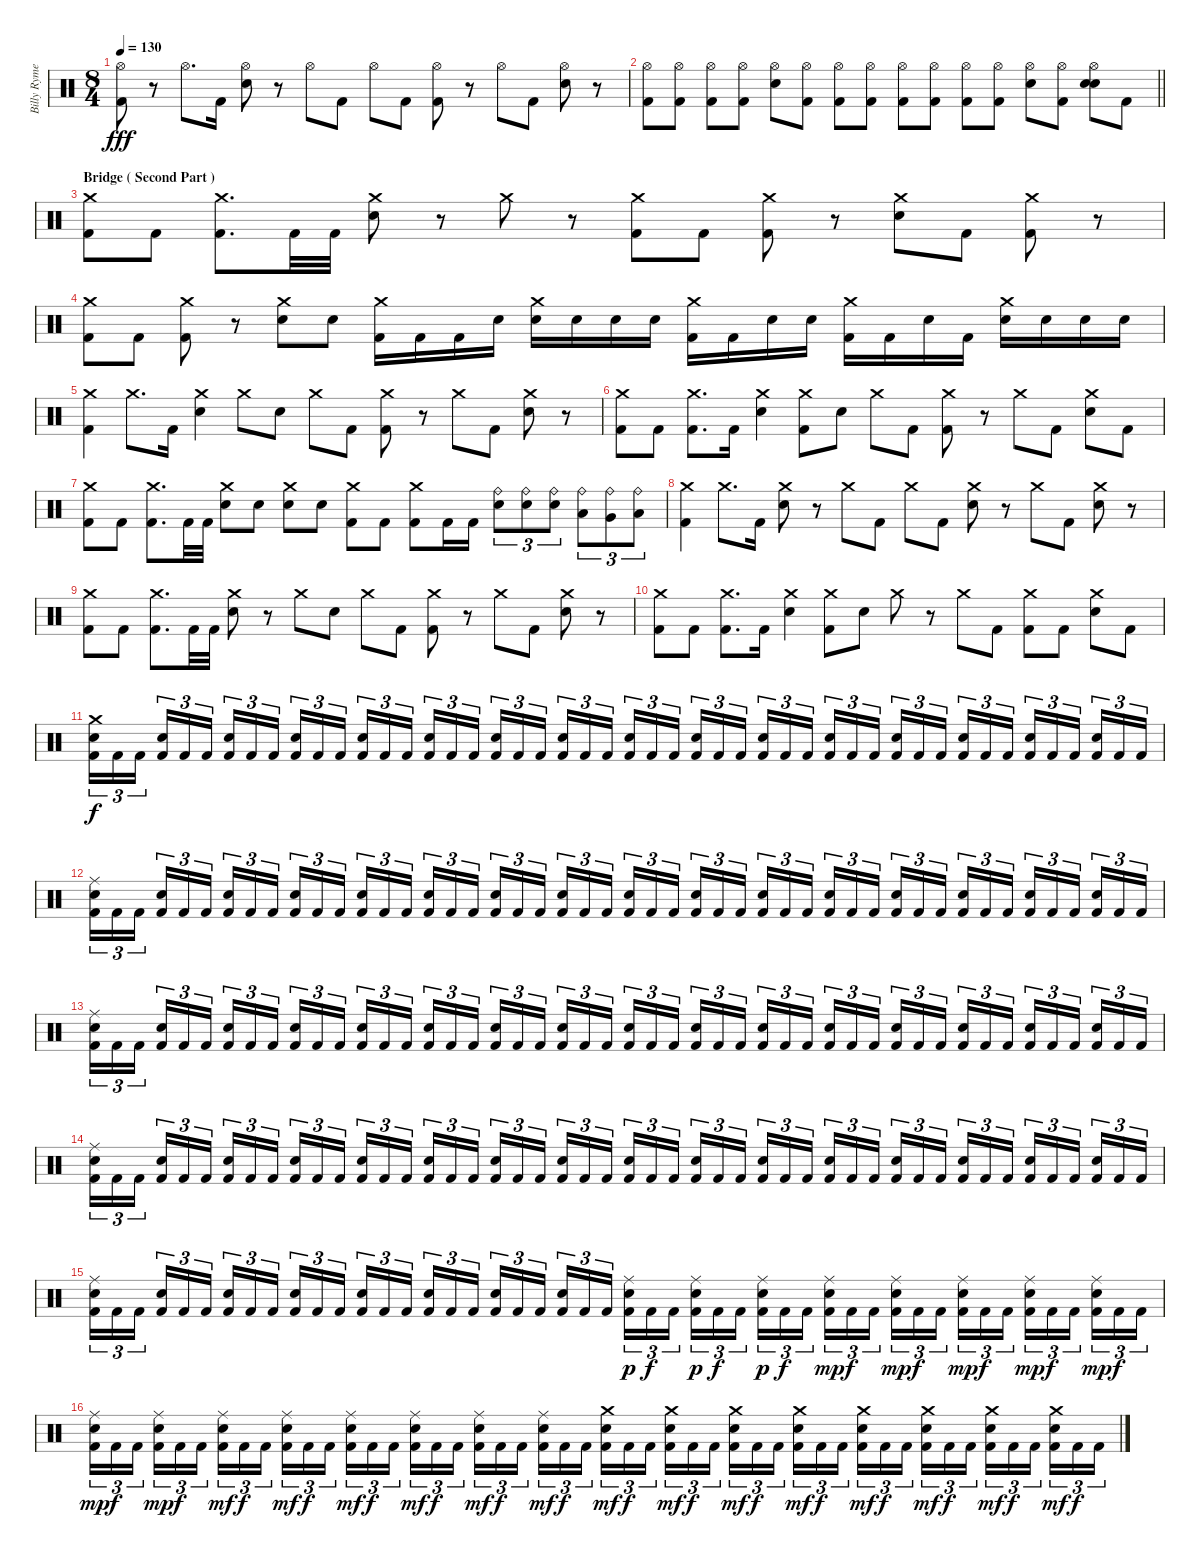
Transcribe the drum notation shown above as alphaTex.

\track ("Billy Rymer" "Billy Ryme") {instrument percussion}
\staff {score}
\articulation defaults
\ts (8 4)
\tempo 130
\clef neutral
\ks c
("Hi-Hat (open)" "Kick (hit) 2").8{dy fff} r.8 "Hi-Hat (open)".8{d} "Kick (hit) 2".16 ("Hi-Hat (open)" "Electric Snare (hit)").8 r.8 "Hi-Hat (open)".8 "Kick (hit) 2".8 "Hi-Hat (open)".8 "Kick (hit) 2".8 ("Hi-Hat (open)" "Kick (hit) 2").8 r.8 "Hi-Hat (open)".8 "Kick (hit) 2".8 ("Hi-Hat (open)" "Electric Snare (hit)").8 r.8 |
\barLineRight lightlight
("Hi-Hat (open)" "Kick (hit) 2").8 ("Hi-Hat (open)" "Kick (hit) 2").8 ("Hi-Hat (open)" "Kick (hit) 2").8 ("Hi-Hat (open)" "Kick (hit) 2").8 ("Hi-Hat (open)" "Electric Snare (hit)").8 ("Hi-Hat (open)" "Kick (hit) 2").8 ("Hi-Hat (open)" "Kick (hit) 2").8 ("Hi-Hat (open)" "Kick (hit) 2").8 ("Hi-Hat (open)" "Kick (hit) 2").8 ("Hi-Hat (open)" "Kick (hit) 2").8 ("Hi-Hat (open)" "Kick (hit) 2").8 ("Hi-Hat (open)" "Kick (hit) 2").8 ("Hi-Hat (open)" "Electric Snare (hit)").8 ("Hi-Hat (open)" "Kick (hit) 2").8 ("Hi-Hat (open)" "Electric Snare (hit)" "Electric Snare (hit)").8 "Kick (hit) 2".8 |
\section ("" "Bridge ( Second Part )")
("Crash medium (hit)" "Kick (hit) 2").8 "Kick (hit) 2".8 ("Crash medium (hit)" "Kick (hit) 2").8{d} "Kick (hit) 2".32 "Kick (hit) 2".32 ("Crash medium (hit)" "Electric Snare (hit)").8 r.8 "Crash medium (hit)".8 r.8 ("Crash medium (hit)" "Kick (hit) 2").8 "Kick (hit) 2".8 ("Crash medium (hit)" "Kick (hit) 2").8 r.8 ("Crash medium (hit)" "Electric Snare (hit)").8 "Kick (hit) 2".8 ("Crash medium (hit)" "Kick (hit) 2").8 r.8 |
("Crash medium (hit)" "Kick (hit) 2").8 "Kick (hit) 2".8 ("Crash medium (hit)" "Kick (hit) 2").8 r.8 ("Crash medium (hit)" "Electric Snare (hit)").8 "Electric Snare (hit)".8 ("Crash medium (hit)" "Kick (hit) 2").16 "Kick (hit) 2".16 "Kick (hit) 2".16 "Electric Snare (hit)".16 ("Crash medium (hit)" "Electric Snare (hit)").16 "Electric Snare (hit)".16 "Electric Snare (hit)".16 "Electric Snare (hit)".16 ("Crash medium (hit)" "Kick (hit) 2").16 "Kick (hit) 2".16 "Electric Snare (hit)".16 "Electric Snare (hit)".16 ("Crash medium (hit)" "Kick (hit) 2").16 "Kick (hit) 2".16 "Electric Snare (hit)".16 "Kick (hit) 2".16 ("Crash medium (hit)" "Electric Snare (hit)").16 "Electric Snare (hit)".16 "Electric Snare (hit)".16 "Electric Snare (hit)".16 |
("Crash medium (hit)" "Kick (hit) 2").4 "Crash medium (hit)".8{d} "Kick (hit) 2".16 ("Crash medium (hit)" "Electric Snare (hit)").4 "Crash medium (hit)".8 "Electric Snare (hit)".8 "Crash medium (hit)".8 "Kick (hit) 2".8 ("Crash medium (hit)" "Kick (hit) 2").8 r.8 "Crash medium (hit)".8 "Kick (hit) 2".8 ("Crash medium (hit)" "Electric Snare (hit)").8 r.8 |
("Crash medium (hit)" "Kick (hit) 2").8 "Kick (hit) 2".8 ("Crash medium (hit)" "Kick (hit) 2").8{d} "Kick (hit) 2".16 ("Crash medium (hit)" "Electric Snare (hit)").4 ("Crash medium (hit)" "Kick (hit) 2").8 "Electric Snare (hit)".8 "Crash medium (hit)".8 "Kick (hit) 2".8 ("Crash medium (hit)" "Kick (hit) 2").8 r.8 "Crash medium (hit)".8 "Kick (hit) 2".8 ("Crash medium (hit)" "Electric Snare (hit)").8 "Kick (hit) 2".8 |
("Crash medium (hit)" "Kick (hit) 2").8 "Kick (hit) 2".8 ("Crash medium (hit)" "Kick (hit) 2").8{d} "Kick (hit) 2".32 "Kick (hit) 2".32 ("Crash medium (hit)" "Electric Snare (hit)").8 "Electric Snare (hit)".8 ("Crash medium (hit)" "Electric Snare (hit)").8 "Electric Snare (hit)".8 ("Crash medium (hit)" "Kick (hit) 2").8 "Kick (hit) 2".8 ("Crash medium (hit)" "Kick (hit) 2").8 "Kick (hit) 2".16 "Kick (hit) 2".16 ("Ride (bell)" "Electric Snare (hit)").8{tu (3 2)} ("Ride (bell)" "Electric Snare (hit)").8{tu (3 2)} ("Ride (bell)" "Electric Snare (hit)").8{tu (3 2)} ("Ride (bell)" "Low Tom (hit)").8{tu (3 2)} ("Ride (bell)" "Very Low Tom (hit)").8{tu (3 2)} ("Ride (bell)" "Low Floor Tom (hit)").8{tu (3 2)} |
("Crash medium (hit)" "Kick (hit) 2").4 "Crash medium (hit)".8{d} "Kick (hit) 2".16 ("Crash medium (hit)" "Electric Snare (hit)").8 r.8 "Crash medium (hit)".8 "Kick (hit) 2".8 "Crash medium (hit)".8 "Kick (hit) 2".8 ("Crash medium (hit)" "Electric Snare (hit)").8 r.8 "Crash medium (hit)".8 "Kick (hit) 2".8 ("Crash medium (hit)" "Electric Snare (hit)").8 r.8 |
("Crash medium (hit)" "Kick (hit) 2").8 "Kick (hit) 2".8 ("Crash medium (hit)" "Kick (hit) 2").8{d} "Kick (hit) 2".32 "Kick (hit) 2".32 ("Crash medium (hit)" "Electric Snare (hit)").8 r.8 "Crash medium (hit)".8 "Electric Snare (hit)".8 "Crash medium (hit)".8 "Kick (hit) 2".8 ("Crash medium (hit)" "Kick (hit) 2").8 r.8 "Crash medium (hit)".8 "Kick (hit) 2".8 ("Crash medium (hit)" "Electric Snare (hit)").8 r.8 |
("Crash medium (hit)" "Kick (hit) 2").8 "Kick (hit) 2".8 ("Crash medium (hit)" "Kick (hit) 2").8{d} "Kick (hit) 2".16 ("Crash medium (hit)" "Electric Snare (hit)").4 ("Crash medium (hit)" "Kick (hit) 2").8 "Electric Snare (hit)".8 "Crash medium (hit)".8 r.8 "Crash medium (hit)".8 "Kick (hit) 2".8 ("Crash medium (hit)" "Kick (hit) 2").8 "Kick (hit) 2".8 ("Crash medium (hit)" "Electric Snare (hit)").8 "Kick (hit) 2".8 |
("Crash medium (hit)" "Electric Snare (hit)" "Kick (hit) 2").16{tu (3 2) dy f} "Kick (hit) 2".16{tu (3 2)} "Kick (hit) 2".16{tu (3 2) beam splitsecondary} ("Electric Snare (hit)" "Kick (hit) 2").16{tu (3 2)} "Kick (hit) 2".16{tu (3 2)} "Kick (hit) 2".16{tu (3 2)} ("Electric Snare (hit)" "Kick (hit) 2").16{tu (3 2)} "Kick (hit) 2".16{tu (3 2)} "Kick (hit) 2".16{tu (3 2) beam splitsecondary} ("Electric Snare (hit)" "Kick (hit) 2").16{tu (3 2)} "Kick (hit) 2".16{tu (3 2)} "Kick (hit) 2".16{tu (3 2)} ("Electric Snare (hit)" "Kick (hit) 2").16{tu (3 2)} "Kick (hit) 2".16{tu (3 2)} "Kick (hit) 2".16{tu (3 2) beam splitsecondary} ("Electric Snare (hit)" "Kick (hit) 2").16{tu (3 2)} "Kick (hit) 2".16{tu (3 2)} "Kick (hit) 2".16{tu (3 2)} ("Electric Snare (hit)" "Kick (hit) 2").16{tu (3 2)} "Kick (hit) 2".16{tu (3 2)} "Kick (hit) 2".16{tu (3 2) beam splitsecondary} ("Electric Snare (hit)" "Kick (hit) 2").16{tu (3 2)} "Kick (hit) 2".16{tu (3 2)} "Kick (hit) 2".16{tu (3 2)} ("Electric Snare (hit)" "Kick (hit) 2").16{tu (3 2)} "Kick (hit) 2".16{tu (3 2)} "Kick (hit) 2".16{tu (3 2) beam splitsecondary} ("Electric Snare (hit)" "Kick (hit) 2").16{tu (3 2)} "Kick (hit) 2".16{tu (3 2)} "Kick (hit) 2".16{tu (3 2)} ("Electric Snare (hit)" "Kick (hit) 2").16{tu (3 2)} "Kick (hit) 2".16{tu (3 2)} "Kick (hit) 2".16{tu (3 2) beam splitsecondary} ("Electric Snare (hit)" "Kick (hit) 2").16{tu (3 2)} "Kick (hit) 2".16{tu (3 2)} "Kick (hit) 2".16{tu (3 2)} ("Electric Snare (hit)" "Kick (hit) 2").16{tu (3 2)} "Kick (hit) 2".16{tu (3 2)} "Kick (hit) 2".16{tu (3 2) beam splitsecondary} ("Electric Snare (hit)" "Kick (hit) 2").16{tu (3 2)} "Kick (hit) 2".16{tu (3 2)} "Kick (hit) 2".16{tu (3 2)} ("Electric Snare (hit)" "Kick (hit) 2").16{tu (3 2)} "Kick (hit) 2".16{tu (3 2)} "Kick (hit) 2".16{tu (3 2) beam splitsecondary} ("Electric Snare (hit)" "Kick (hit) 2").16{tu (3 2)} "Kick (hit) 2".16{tu (3 2)} "Kick (hit) 2".16{tu (3 2)} |
("Ride (middle)" "Electric Snare (hit)" "Kick (hit) 2").16{tu (3 2)} "Kick (hit) 2".16{tu (3 2)} "Kick (hit) 2".16{tu (3 2) beam splitsecondary} ("Electric Snare (hit)" "Kick (hit) 2").16{tu (3 2)} "Kick (hit) 2".16{tu (3 2)} "Kick (hit) 2".16{tu (3 2)} ("Electric Snare (hit)" "Kick (hit) 2").16{tu (3 2)} "Kick (hit) 2".16{tu (3 2)} "Kick (hit) 2".16{tu (3 2) beam splitsecondary} ("Electric Snare (hit)" "Kick (hit) 2").16{tu (3 2)} "Kick (hit) 2".16{tu (3 2)} "Kick (hit) 2".16{tu (3 2)} ("Electric Snare (hit)" "Kick (hit) 2").16{tu (3 2)} "Kick (hit) 2".16{tu (3 2)} "Kick (hit) 2".16{tu (3 2) beam splitsecondary} ("Electric Snare (hit)" "Kick (hit) 2").16{tu (3 2)} "Kick (hit) 2".16{tu (3 2)} "Kick (hit) 2".16{tu (3 2)} ("Electric Snare (hit)" "Kick (hit) 2").16{tu (3 2)} "Kick (hit) 2".16{tu (3 2)} "Kick (hit) 2".16{tu (3 2) beam splitsecondary} ("Electric Snare (hit)" "Kick (hit) 2").16{tu (3 2)} "Kick (hit) 2".16{tu (3 2)} "Kick (hit) 2".16{tu (3 2)} ("Electric Snare (hit)" "Kick (hit) 2").16{tu (3 2)} "Kick (hit) 2".16{tu (3 2)} "Kick (hit) 2".16{tu (3 2) beam splitsecondary} ("Electric Snare (hit)" "Kick (hit) 2").16{tu (3 2)} "Kick (hit) 2".16{tu (3 2)} "Kick (hit) 2".16{tu (3 2)} ("Electric Snare (hit)" "Kick (hit) 2").16{tu (3 2)} "Kick (hit) 2".16{tu (3 2)} "Kick (hit) 2".16{tu (3 2) beam splitsecondary} ("Electric Snare (hit)" "Kick (hit) 2").16{tu (3 2)} "Kick (hit) 2".16{tu (3 2)} "Kick (hit) 2".16{tu (3 2)} ("Electric Snare (hit)" "Kick (hit) 2").16{tu (3 2)} "Kick (hit) 2".16{tu (3 2)} "Kick (hit) 2".16{tu (3 2) beam splitsecondary} ("Electric Snare (hit)" "Kick (hit) 2").16{tu (3 2)} "Kick (hit) 2".16{tu (3 2)} "Kick (hit) 2".16{tu (3 2)} ("Electric Snare (hit)" "Kick (hit) 2").16{tu (3 2)} "Kick (hit) 2".16{tu (3 2)} "Kick (hit) 2".16{tu (3 2) beam splitsecondary} ("Electric Snare (hit)" "Kick (hit) 2").16{tu (3 2)} "Kick (hit) 2".16{tu (3 2)} "Kick (hit) 2".16{tu (3 2)} |
("Ride (middle)" "Electric Snare (hit)" "Kick (hit) 2").16{tu (3 2)} "Kick (hit) 2".16{tu (3 2)} "Kick (hit) 2".16{tu (3 2) beam splitsecondary} ("Electric Snare (hit)" "Kick (hit) 2").16{tu (3 2)} "Kick (hit) 2".16{tu (3 2)} "Kick (hit) 2".16{tu (3 2)} ("Electric Snare (hit)" "Kick (hit) 2").16{tu (3 2)} "Kick (hit) 2".16{tu (3 2)} "Kick (hit) 2".16{tu (3 2) beam splitsecondary} ("Electric Snare (hit)" "Kick (hit) 2").16{tu (3 2)} "Kick (hit) 2".16{tu (3 2)} "Kick (hit) 2".16{tu (3 2)} ("Electric Snare (hit)" "Kick (hit) 2").16{tu (3 2)} "Kick (hit) 2".16{tu (3 2)} "Kick (hit) 2".16{tu (3 2) beam splitsecondary} ("Electric Snare (hit)" "Kick (hit) 2").16{tu (3 2)} "Kick (hit) 2".16{tu (3 2)} "Kick (hit) 2".16{tu (3 2)} ("Electric Snare (hit)" "Kick (hit) 2").16{tu (3 2)} "Kick (hit) 2".16{tu (3 2)} "Kick (hit) 2".16{tu (3 2) beam splitsecondary} ("Electric Snare (hit)" "Kick (hit) 2").16{tu (3 2)} "Kick (hit) 2".16{tu (3 2)} "Kick (hit) 2".16{tu (3 2)} ("Electric Snare (hit)" "Kick (hit) 2").16{tu (3 2)} "Kick (hit) 2".16{tu (3 2)} "Kick (hit) 2".16{tu (3 2) beam splitsecondary} ("Electric Snare (hit)" "Kick (hit) 2").16{tu (3 2)} "Kick (hit) 2".16{tu (3 2)} "Kick (hit) 2".16{tu (3 2)} ("Electric Snare (hit)" "Kick (hit) 2").16{tu (3 2)} "Kick (hit) 2".16{tu (3 2)} "Kick (hit) 2".16{tu (3 2) beam splitsecondary} ("Electric Snare (hit)" "Kick (hit) 2").16{tu (3 2)} "Kick (hit) 2".16{tu (3 2)} "Kick (hit) 2".16{tu (3 2)} ("Electric Snare (hit)" "Kick (hit) 2").16{tu (3 2)} "Kick (hit) 2".16{tu (3 2)} "Kick (hit) 2".16{tu (3 2) beam splitsecondary} ("Electric Snare (hit)" "Kick (hit) 2").16{tu (3 2)} "Kick (hit) 2".16{tu (3 2)} "Kick (hit) 2".16{tu (3 2)} ("Electric Snare (hit)" "Kick (hit) 2").16{tu (3 2)} "Kick (hit) 2".16{tu (3 2)} "Kick (hit) 2".16{tu (3 2) beam splitsecondary} ("Electric Snare (hit)" "Kick (hit) 2").16{tu (3 2)} "Kick (hit) 2".16{tu (3 2)} "Kick (hit) 2".16{tu (3 2)} |
("Ride (middle)" "Electric Snare (hit)" "Kick (hit) 2").16{tu (3 2)} "Kick (hit) 2".16{tu (3 2)} "Kick (hit) 2".16{tu (3 2) beam splitsecondary} ("Electric Snare (hit)" "Kick (hit) 2").16{tu (3 2)} "Kick (hit) 2".16{tu (3 2)} "Kick (hit) 2".16{tu (3 2)} ("Electric Snare (hit)" "Kick (hit) 2").16{tu (3 2)} "Kick (hit) 2".16{tu (3 2)} "Kick (hit) 2".16{tu (3 2) beam splitsecondary} ("Electric Snare (hit)" "Kick (hit) 2").16{tu (3 2)} "Kick (hit) 2".16{tu (3 2)} "Kick (hit) 2".16{tu (3 2)} ("Electric Snare (hit)" "Kick (hit) 2").16{tu (3 2)} "Kick (hit) 2".16{tu (3 2)} "Kick (hit) 2".16{tu (3 2) beam splitsecondary} ("Electric Snare (hit)" "Kick (hit) 2").16{tu (3 2)} "Kick (hit) 2".16{tu (3 2)} "Kick (hit) 2".16{tu (3 2)} ("Electric Snare (hit)" "Kick (hit) 2").16{tu (3 2)} "Kick (hit) 2".16{tu (3 2)} "Kick (hit) 2".16{tu (3 2) beam splitsecondary} ("Electric Snare (hit)" "Kick (hit) 2").16{tu (3 2)} "Kick (hit) 2".16{tu (3 2)} "Kick (hit) 2".16{tu (3 2)} ("Electric Snare (hit)" "Kick (hit) 2").16{tu (3 2)} "Kick (hit) 2".16{tu (3 2)} "Kick (hit) 2".16{tu (3 2) beam splitsecondary} ("Electric Snare (hit)" "Kick (hit) 2").16{tu (3 2)} "Kick (hit) 2".16{tu (3 2)} "Kick (hit) 2".16{tu (3 2)} ("Electric Snare (hit)" "Kick (hit) 2").16{tu (3 2)} "Kick (hit) 2".16{tu (3 2)} "Kick (hit) 2".16{tu (3 2) beam splitsecondary} ("Electric Snare (hit)" "Kick (hit) 2").16{tu (3 2)} "Kick (hit) 2".16{tu (3 2)} "Kick (hit) 2".16{tu (3 2)} ("Electric Snare (hit)" "Kick (hit) 2").16{tu (3 2)} "Kick (hit) 2".16{tu (3 2)} "Kick (hit) 2".16{tu (3 2) beam splitsecondary} ("Electric Snare (hit)" "Kick (hit) 2").16{tu (3 2)} "Kick (hit) 2".16{tu (3 2)} "Kick (hit) 2".16{tu (3 2)} ("Electric Snare (hit)" "Kick (hit) 2").16{tu (3 2)} "Kick (hit) 2".16{tu (3 2)} "Kick (hit) 2".16{tu (3 2) beam splitsecondary} ("Electric Snare (hit)" "Kick (hit) 2").16{tu (3 2)} "Kick (hit) 2".16{tu (3 2)} "Kick (hit) 2".16{tu (3 2)} |
("Ride (middle)" "Electric Snare (hit)" "Kick (hit) 2").16{tu (3 2)} "Kick (hit) 2".16{tu (3 2)} "Kick (hit) 2".16{tu (3 2) beam splitsecondary} ("Electric Snare (hit)" "Kick (hit) 2").16{tu (3 2)} "Kick (hit) 2".16{tu (3 2)} "Kick (hit) 2".16{tu (3 2)} ("Electric Snare (hit)" "Kick (hit) 2").16{tu (3 2)} "Kick (hit) 2".16{tu (3 2)} "Kick (hit) 2".16{tu (3 2) beam splitsecondary} ("Electric Snare (hit)" "Kick (hit) 2").16{tu (3 2)} "Kick (hit) 2".16{tu (3 2)} "Kick (hit) 2".16{tu (3 2)} ("Electric Snare (hit)" "Kick (hit) 2").16{tu (3 2)} "Kick (hit) 2".16{tu (3 2)} "Kick (hit) 2".16{tu (3 2) beam splitsecondary} ("Electric Snare (hit)" "Kick (hit) 2").16{tu (3 2)} "Kick (hit) 2".16{tu (3 2)} "Kick (hit) 2".16{tu (3 2)} ("Electric Snare (hit)" "Kick (hit) 2").16{tu (3 2)} "Kick (hit) 2".16{tu (3 2)} "Kick (hit) 2".16{tu (3 2) beam splitsecondary} ("Electric Snare (hit)" "Kick (hit) 2").16{tu (3 2)} "Kick (hit) 2".16{tu (3 2)} "Kick (hit) 2".16{tu (3 2)} ("Ride (middle)" "Electric Snare (hit)" "Kick (hit) 2").16{tu (3 2) dy p} "Kick (hit) 2".16{tu (3 2) dy f} "Kick (hit) 2".16{tu (3 2) beam splitsecondary} ("Ride (middle)" "Electric Snare (hit)" "Kick (hit) 2").16{tu (3 2) dy p} "Kick (hit) 2".16{tu (3 2) dy f} "Kick (hit) 2".16{tu (3 2)} ("Ride (middle)" "Electric Snare (hit)" "Kick (hit) 2").16{tu (3 2) dy p} "Kick (hit) 2".16{tu (3 2) dy f} "Kick (hit) 2".16{tu (3 2) beam splitsecondary} ("Ride (middle)" "Electric Snare (hit)" "Kick (hit) 2").16{tu (3 2) dy mp} "Kick (hit) 2".16{tu (3 2) dy f} "Kick (hit) 2".16{tu (3 2)} ("Ride (middle)" "Electric Snare (hit)" "Kick (hit) 2").16{tu (3 2) dy mp} "Kick (hit) 2".16{tu (3 2) dy f} "Kick (hit) 2".16{tu (3 2) beam splitsecondary} ("Ride (middle)" "Electric Snare (hit)" "Kick (hit) 2").16{tu (3 2) dy mp} "Kick (hit) 2".16{tu (3 2) dy f} "Kick (hit) 2".16{tu (3 2)} ("Ride (middle)" "Electric Snare (hit)" "Kick (hit) 2").16{tu (3 2) dy mp} "Kick (hit) 2".16{tu (3 2) dy f} "Kick (hit) 2".16{tu (3 2) beam splitsecondary} ("Ride (middle)" "Electric Snare (hit)" "Kick (hit) 2").16{tu (3 2) dy mp} "Kick (hit) 2".16{tu (3 2) dy f} "Kick (hit) 2".16{tu (3 2)} |
("Ride (middle)" "Electric Snare (hit)" "Kick (hit) 2").16{tu (3 2) dy mp} "Kick (hit) 2".16{tu (3 2) dy f} "Kick (hit) 2".16{tu (3 2) beam splitsecondary} ("Ride (middle)" "Electric Snare (hit)" "Kick (hit) 2").16{tu (3 2) dy mp} "Kick (hit) 2".16{tu (3 2) dy f} "Kick (hit) 2".16{tu (3 2)} ("Ride (middle)" "Electric Snare (hit)" "Kick (hit) 2").16{tu (3 2) dy mf} "Kick (hit) 2".16{tu (3 2) dy f} "Kick (hit) 2".16{tu (3 2) beam splitsecondary} ("Ride (middle)" "Electric Snare (hit)" "Kick (hit) 2").16{tu (3 2) dy mf} "Kick (hit) 2".16{tu (3 2) dy f} "Kick (hit) 2".16{tu (3 2)} ("Ride (middle)" "Electric Snare (hit)" "Kick (hit) 2").16{tu (3 2) dy mf} "Kick (hit) 2".16{tu (3 2) dy f} "Kick (hit) 2".16{tu (3 2) beam splitsecondary} ("Ride (middle)" "Electric Snare (hit)" "Kick (hit) 2").16{tu (3 2) dy mf} "Kick (hit) 2".16{tu (3 2) dy f} "Kick (hit) 2".16{tu (3 2)} ("Ride (middle)" "Electric Snare (hit)" "Kick (hit) 2").16{tu (3 2) dy mf} "Kick (hit) 2".16{tu (3 2) dy f} "Kick (hit) 2".16{tu (3 2) beam splitsecondary} ("Ride (middle)" "Electric Snare (hit)" "Kick (hit) 2").16{tu (3 2) dy mf} "Kick (hit) 2".16{tu (3 2) dy f} "Kick (hit) 2".16{tu (3 2)} ("Crash medium (hit)" "Electric Snare (hit)" "Kick (hit) 2").16{tu (3 2) dy mf} "Kick (hit) 2".16{tu (3 2) dy f} "Kick (hit) 2".16{tu (3 2) beam splitsecondary} ("Crash medium (hit)" "Electric Snare (hit)" "Kick (hit) 2").16{tu (3 2) dy mf} "Kick (hit) 2".16{tu (3 2) dy f} "Kick (hit) 2".16{tu (3 2)} ("Crash medium (hit)" "Electric Snare (hit)" "Kick (hit) 2").16{tu (3 2) dy mf} "Kick (hit) 2".16{tu (3 2) dy f} "Kick (hit) 2".16{tu (3 2) beam splitsecondary} ("Crash medium (hit)" "Electric Snare (hit)" "Kick (hit) 2").16{tu (3 2) dy mf} "Kick (hit) 2".16{tu (3 2) dy f} "Kick (hit) 2".16{tu (3 2)} ("Crash medium (hit)" "Electric Snare (hit)" "Kick (hit) 2").16{tu (3 2) dy mf} "Kick (hit) 2".16{tu (3 2) dy f} "Kick (hit) 2".16{tu (3 2) beam splitsecondary} ("Crash medium (hit)" "Electric Snare (hit)" "Kick (hit) 2").16{tu (3 2) dy mf} "Kick (hit) 2".16{tu (3 2) dy f} "Kick (hit) 2".16{tu (3 2)} ("Crash medium (hit)" "Electric Snare (hit)" "Kick (hit) 2").16{tu (3 2) dy mf} "Kick (hit) 2".16{tu (3 2) dy f} "Kick (hit) 2".16{tu (3 2) beam splitsecondary} ("Crash medium (hit)" "Electric Snare (hit)" "Kick (hit) 2").16{tu (3 2) dy mf} "Kick (hit) 2".16{tu (3 2) dy f} "Kick (hit) 2".16{tu (3 2)}
